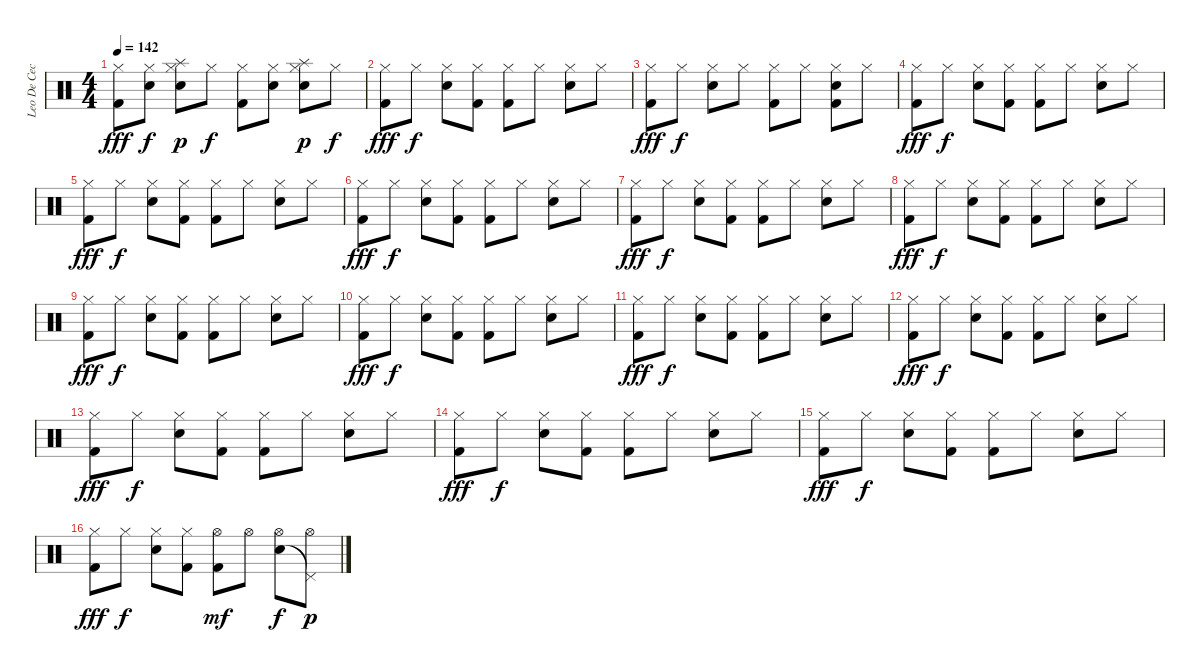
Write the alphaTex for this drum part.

\track ("Leo De Cecco" "Leo De Cec") {instrument percussion}
\staff {score}
\articulation defaults
\ts (4 4)
\tempo 142
\clef neutral
\ks c
("Hi-Hat (closed)" "Kick (hit) 2").8{dy fff} ("Hi-Hat (closed)" "Electric Snare (hit)").8{dy f} ("Splash (hit)" "Hi-Hat (closed)" "Electric Snare (hit)").8{dy p} "Hi-Hat (closed)".8{dy f} ("Hi-Hat (closed)" "Kick (hit) 2").8 ("Hi-Hat (closed)" "Electric Snare (hit)").8 ("Splash (hit)" "Hi-Hat (closed)" "Electric Snare (hit)").8{dy p} "Hi-Hat (closed)".8{dy f} |
("Hi-Hat (closed)" "Kick (hit) 2").8{dy fff} "Hi-Hat (closed)".8{dy f} ("Hi-Hat (closed)" "Electric Snare (hit)").8 ("Hi-Hat (closed)" "Kick (hit) 2").8 ("Hi-Hat (closed)" "Kick (hit) 2").8 "Hi-Hat (closed)".8 ("Hi-Hat (closed)" "Electric Snare (hit)").8 "Hi-Hat (closed)".8 |
("Hi-Hat (closed)" "Kick (hit) 2").8{dy fff} "Hi-Hat (closed)".8{dy f} ("Hi-Hat (closed)" "Electric Snare (hit)").8 "Hi-Hat (closed)".8 ("Hi-Hat (closed)" "Kick (hit) 2").8 "Hi-Hat (closed)".8 ("Hi-Hat (closed)" "Electric Snare (hit)" "Kick (hit) 2").8 "Hi-Hat (closed)".8 |
("Hi-Hat (closed)" "Kick (hit) 2").8{dy fff} "Hi-Hat (closed)".8{dy f} ("Hi-Hat (closed)" "Electric Snare (hit)").8 ("Hi-Hat (closed)" "Kick (hit) 2").8 ("Hi-Hat (closed)" "Kick (hit) 2").8 "Hi-Hat (closed)".8 ("Hi-Hat (closed)" "Electric Snare (hit)").8 "Hi-Hat (closed)".8 |
("Hi-Hat (closed)" "Kick (hit) 2").8{dy fff} "Hi-Hat (closed)".8{dy f} ("Hi-Hat (closed)" "Electric Snare (hit)").8 ("Hi-Hat (closed)" "Kick (hit) 2").8 ("Hi-Hat (closed)" "Kick (hit) 2").8 "Hi-Hat (closed)".8 ("Hi-Hat (closed)" "Electric Snare (hit)").8 "Hi-Hat (closed)".8 |
("Hi-Hat (closed)" "Kick (hit) 2").8{dy fff} "Hi-Hat (closed)".8{dy f} ("Hi-Hat (closed)" "Electric Snare (hit)").8 ("Hi-Hat (closed)" "Kick (hit) 2").8 ("Hi-Hat (closed)" "Kick (hit) 2").8 "Hi-Hat (closed)".8 ("Hi-Hat (closed)" "Electric Snare (hit)").8 "Hi-Hat (closed)".8 |
("Hi-Hat (closed)" "Kick (hit) 2").8{dy fff} "Hi-Hat (closed)".8{dy f} ("Hi-Hat (closed)" "Electric Snare (hit)").8 ("Hi-Hat (closed)" "Kick (hit) 2").8 ("Hi-Hat (closed)" "Kick (hit) 2").8 "Hi-Hat (closed)".8 ("Hi-Hat (closed)" "Electric Snare (hit)").8 "Hi-Hat (closed)".8 |
("Hi-Hat (closed)" "Kick (hit) 2").8{dy fff} "Hi-Hat (closed)".8{dy f} ("Hi-Hat (closed)" "Electric Snare (hit)").8 ("Hi-Hat (closed)" "Kick (hit) 2").8 ("Hi-Hat (closed)" "Kick (hit) 2").8 "Hi-Hat (closed)".8 ("Hi-Hat (closed)" "Electric Snare (hit)").8 "Hi-Hat (closed)".8 |
("Hi-Hat (closed)" "Kick (hit) 2").8{dy fff} "Hi-Hat (closed)".8{dy f} ("Hi-Hat (closed)" "Electric Snare (hit)").8 ("Hi-Hat (closed)" "Kick (hit) 2").8 ("Hi-Hat (closed)" "Kick (hit) 2").8 "Hi-Hat (closed)".8 ("Hi-Hat (closed)" "Electric Snare (hit)").8 "Hi-Hat (closed)".8 |
("Hi-Hat (closed)" "Kick (hit) 2").8{dy fff} "Hi-Hat (closed)".8{dy f} ("Hi-Hat (closed)" "Electric Snare (hit)").8 ("Hi-Hat (closed)" "Kick (hit) 2").8 ("Hi-Hat (closed)" "Kick (hit) 2").8 "Hi-Hat (closed)".8 ("Hi-Hat (closed)" "Electric Snare (hit)").8 "Hi-Hat (closed)".8 |
("Hi-Hat (closed)" "Kick (hit) 2").8{dy fff} "Hi-Hat (closed)".8{dy f} ("Hi-Hat (closed)" "Electric Snare (hit)").8 ("Hi-Hat (closed)" "Kick (hit) 2").8 ("Hi-Hat (closed)" "Kick (hit) 2").8 "Hi-Hat (closed)".8 ("Hi-Hat (closed)" "Electric Snare (hit)").8 "Hi-Hat (closed)".8 |
("Hi-Hat (closed)" "Kick (hit) 2").8{dy fff} "Hi-Hat (closed)".8{dy f} ("Hi-Hat (closed)" "Electric Snare (hit)").8 ("Hi-Hat (closed)" "Kick (hit) 2").8 ("Hi-Hat (closed)" "Kick (hit) 2").8 "Hi-Hat (closed)".8 ("Hi-Hat (closed)" "Electric Snare (hit)").8 "Hi-Hat (closed)".8 |
("Hi-Hat (closed)" "Kick (hit) 2").8{dy fff} "Hi-Hat (closed)".8{dy f} ("Hi-Hat (closed)" "Electric Snare (hit)").8 ("Hi-Hat (closed)" "Kick (hit) 2").8 ("Hi-Hat (closed)" "Kick (hit) 2").8 "Hi-Hat (closed)".8 ("Hi-Hat (closed)" "Electric Snare (hit)").8 "Hi-Hat (closed)".8 |
("Hi-Hat (closed)" "Kick (hit) 2").8{dy fff} "Hi-Hat (closed)".8{dy f} ("Hi-Hat (closed)" "Electric Snare (hit)").8 ("Hi-Hat (closed)" "Kick (hit) 2").8 ("Hi-Hat (closed)" "Kick (hit) 2").8 "Hi-Hat (closed)".8 ("Hi-Hat (closed)" "Electric Snare (hit)").8 "Hi-Hat (closed)".8 |
("Hi-Hat (closed)" "Kick (hit) 2").8{dy fff} "Hi-Hat (closed)".8{dy f} ("Hi-Hat (closed)" "Electric Snare (hit)").8 ("Hi-Hat (closed)" "Kick (hit) 2").8 ("Hi-Hat (closed)" "Kick (hit) 2").8 "Hi-Hat (closed)".8 ("Hi-Hat (closed)" "Electric Snare (hit)").8 "Hi-Hat (closed)".8 |
("Hi-Hat (closed)" "Kick (hit) 2").8{dy fff} "Hi-Hat (closed)".8{dy f} ("Hi-Hat (closed)" "Electric Snare (hit)").8 ("Hi-Hat (closed)" "Kick (hit) 2").8 ("Hi-Hat (open)" "Kick (hit) 2").8{dy mf} "Hi-Hat (open)".8 ("Hi-Hat (open)" "Electric Snare (hit)").8{dy f} ("Hi-Hat (open)" "Pedal Hi-Hat (hit)"{t}).8{dy p}
